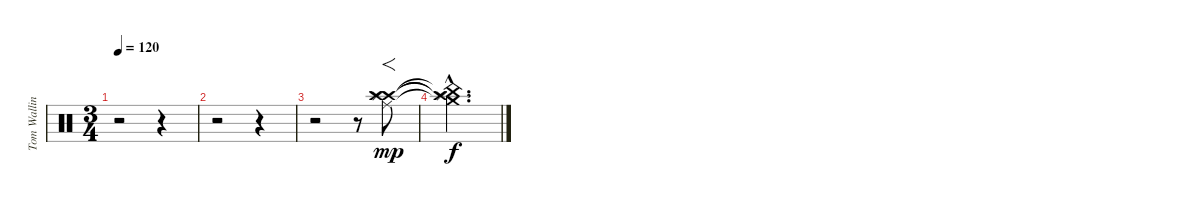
\track ("Tom Walling (Drums)" "Tom Wallin") {instrument percussion}
\staff {score}
\articulation defaults
\ts (3 4)
\tempo 120
\clef neutral
\ks c
r.2{dy f} r.4 |
r.2 r.4 |
r.2 r.8 ("Crash high (hit)" "Crash high (hit)" "Splash (hit)" "Ride (middle)").8{f bd 480 dy mp} |
("Crash high (hit)"{hac t} "China (hit)"{hac t} "Splash (hit)"{hac t} "Crash medium (hit)"{hac t}).2{d dy f}
